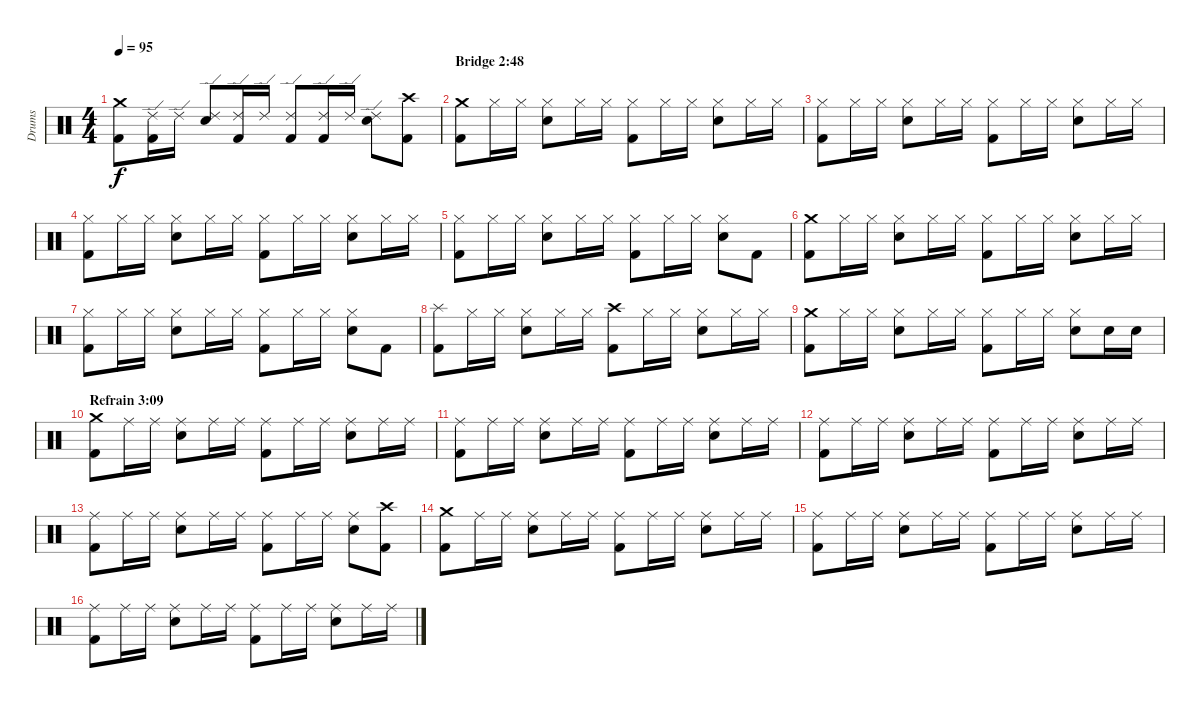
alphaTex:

\track ("Drums" "Drums") {instrument percussion}
\staff {score}
\articulation defaults
\ts (4 4)
\tempo 95
\clef neutral
\ks c
("Crash medium (hit)" "Kick (hit) 2").8{dy f} ("Ride (edge) 2" "Kick (hit) 2").16 "Ride (edge) 2".16 ("Ride (edge) 2" "Snare (hit) 2").8 ("Ride (edge) 2" "Kick (hit) 2").16 "Ride (edge) 2".16 ("Ride (edge) 2" "Kick (hit) 2").8 ("Ride (edge) 2" "Kick (hit) 2").16 "Ride (edge) 2".16 ("Ride (edge) 2" "Snare (hit) 2").8 ("Crash high (hit)" "Kick (hit) 2").8 |
\section ("" "Bridge 2:48")
("Crash medium (hit)" "Kick (hit) 2").8 "Hi-Hat (closed)".16 "Hi-Hat (closed)".16 ("Hi-Hat (closed)" "Snare (hit) 2").8 "Hi-Hat (closed)".16 "Hi-Hat (closed)".16 ("Hi-Hat (closed)" "Kick (hit) 2").8 "Hi-Hat (closed)".16 "Hi-Hat (closed)".16 ("Hi-Hat (closed)" "Snare (hit) 2").8 "Hi-Hat (closed)".16 "Hi-Hat (closed)".16 |
("Hi-Hat (closed)" "Kick (hit) 2").8 "Hi-Hat (closed)".16 "Hi-Hat (closed)".16 ("Hi-Hat (closed)" "Snare (hit) 2").8 "Hi-Hat (closed)".16 "Hi-Hat (closed)".16 ("Hi-Hat (closed)" "Kick (hit) 2").8 "Hi-Hat (closed)".16 "Hi-Hat (closed)".16 ("Hi-Hat (closed)" "Snare (hit) 2").8 "Hi-Hat (closed)".16 "Hi-Hat (closed)".16 |
("Hi-Hat (closed)" "Kick (hit) 2").8 "Hi-Hat (closed)".16 "Hi-Hat (closed)".16 ("Hi-Hat (closed)" "Snare (hit) 2").8 "Hi-Hat (closed)".16 "Hi-Hat (closed)".16 ("Hi-Hat (closed)" "Kick (hit) 2").8 "Hi-Hat (closed)".16 "Hi-Hat (closed)".16 ("Hi-Hat (closed)" "Snare (hit) 2").8 "Hi-Hat (closed)".16 "Hi-Hat (closed)".16 |
("Hi-Hat (closed)" "Kick (hit) 2").8 "Hi-Hat (closed)".16 "Hi-Hat (closed)".16 ("Hi-Hat (closed)" "Snare (hit) 2").8 "Hi-Hat (closed)".16 "Hi-Hat (closed)".16 ("Hi-Hat (closed)" "Kick (hit) 2").8 "Hi-Hat (closed)".16 "Hi-Hat (closed)".16 ("Hi-Hat (closed)" "Snare (hit) 2").8 "Kick (hit) 2".8 |
("Crash medium (hit)" "Kick (hit) 2").8 "Hi-Hat (closed)".16 "Hi-Hat (closed)".16 ("Hi-Hat (closed)" "Snare (hit) 2").8 "Hi-Hat (closed)".16 "Hi-Hat (closed)".16 ("Hi-Hat (closed)" "Kick (hit) 2").8 "Hi-Hat (closed)".16 "Hi-Hat (closed)".16 ("Hi-Hat (closed)" "Snare (hit) 2").8 "Hi-Hat (closed)".16 "Hi-Hat (closed)".16 |
("Hi-Hat (closed)" "Kick (hit) 2").8 "Hi-Hat (closed)".16 "Hi-Hat (closed)".16 ("Hi-Hat (closed)" "Snare (hit) 2").8 "Hi-Hat (closed)".16 "Hi-Hat (closed)".16 ("Hi-Hat (closed)" "Kick (hit) 2").8 "Hi-Hat (closed)".16 "Hi-Hat (closed)".16 ("Hi-Hat (closed)" "Snare (hit) 2").8 "Kick (hit) 2".8 |
("Splash (hit)" "Kick (hit) 2").8 "Hi-Hat (closed)".16 "Hi-Hat (closed)".16 ("Hi-Hat (closed)" "Snare (hit) 2").8 "Hi-Hat (closed)".16 "Hi-Hat (closed)".16 ("Crash high (hit)" "Kick (hit) 2").8 "Hi-Hat (closed)".16 "Hi-Hat (closed)".16 ("Hi-Hat (closed)" "Snare (hit) 2").8 "Hi-Hat (closed)".16 "Hi-Hat (closed)".16 |
("Crash medium (hit)" "Kick (hit) 2").8 "Hi-Hat (closed)".16 "Hi-Hat (closed)".16 ("Hi-Hat (closed)" "Snare (hit) 2").8 "Hi-Hat (closed)".16 "Hi-Hat (closed)".16 ("Hi-Hat (closed)" "Kick (hit) 2").8 "Hi-Hat (closed)".16 "Hi-Hat (closed)".16 ("Hi-Hat (closed)" "Snare (hit) 2").8 "Snare (hit) 2".16 "Snare (hit) 2".16 |
\section ("" "Refrain 3:09")
("Crash medium (hit)" "Kick (hit) 2").8 "Ride (middle)".16 "Ride (middle)".16 ("Ride (middle)" "Snare (hit) 2").8 "Ride (middle)".16 "Ride (middle)".16 ("Ride (middle)" "Kick (hit) 2").8 "Ride (middle)".16 "Ride (middle)".16 ("Ride (middle)" "Snare (hit) 2").8 "Ride (middle)".16 "Ride (middle)".16 |
("Ride (middle)" "Kick (hit) 2").8 "Ride (middle)".16 "Ride (middle)".16 ("Ride (middle)" "Snare (hit) 2").8 "Ride (middle)".16 "Ride (middle)".16 ("Ride (middle)" "Kick (hit) 2").8 "Ride (middle)".16 "Ride (middle)".16 ("Ride (middle)" "Snare (hit) 2").8 "Ride (middle)".16 "Ride (middle)".16 |
("Ride (middle)" "Kick (hit) 2").8 "Ride (middle)".16 "Ride (middle)".16 ("Ride (middle)" "Snare (hit) 2").8 "Ride (middle)".16 "Ride (middle)".16 ("Ride (middle)" "Kick (hit) 2").8 "Ride (middle)".16 "Ride (middle)".16 ("Ride (middle)" "Snare (hit) 2").8 "Ride (middle)".16 "Ride (middle)".16 |
("Ride (middle)" "Kick (hit) 2").8 "Ride (middle)".16 "Ride (middle)".16 ("Ride (middle)" "Snare (hit) 2").8 "Ride (middle)".16 "Ride (middle)".16 ("Ride (middle)" "Kick (hit) 2").8 "Ride (middle)".16 "Ride (middle)".16 ("Ride (middle)" "Snare (hit) 2").8 ("Crash high (hit)" "Kick (hit) 2").8 |
("Crash medium (hit)" "Kick (hit) 2").8 "Ride (middle)".16 "Ride (middle)".16 ("Ride (middle)" "Snare (hit) 2").8 "Ride (middle)".16 "Ride (middle)".16 ("Ride (middle)" "Kick (hit) 2").8 "Ride (middle)".16 "Ride (middle)".16 ("Ride (middle)" "Snare (hit) 2").8 "Ride (middle)".16 "Ride (middle)".16 |
("Ride (middle)" "Kick (hit) 2").8 "Ride (middle)".16 "Ride (middle)".16 ("Ride (middle)" "Snare (hit) 2").8 "Ride (middle)".16 "Ride (middle)".16 ("Ride (middle)" "Kick (hit) 2").8 "Ride (middle)".16 "Ride (middle)".16 ("Ride (middle)" "Snare (hit) 2").8 "Ride (middle)".16 "Ride (middle)".16 |
("Ride (middle)" "Kick (hit) 2").8 "Ride (middle)".16 "Ride (middle)".16 ("Ride (middle)" "Snare (hit) 2").8 "Ride (middle)".16 "Ride (middle)".16 ("Ride (middle)" "Kick (hit) 2").8 "Ride (middle)".16 "Ride (middle)".16 ("Ride (middle)" "Snare (hit) 2").8 "Ride (middle)".16 "Ride (middle)".16
